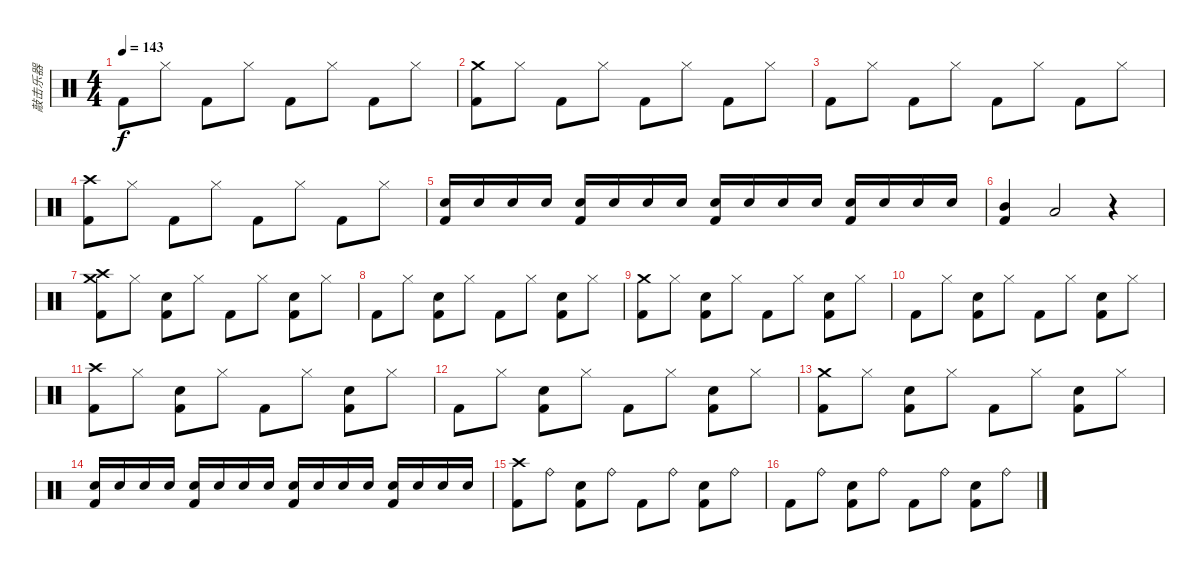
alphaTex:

\track ("敲击乐器" "敲击乐器") {instrument percussion}
\staff {score}
\articulation defaults
\ts (4 4)
\tempo 143
\clef neutral
\ks c "Kick (hit) 2".8{dy f} "Hi-Hat (closed)".8 "Kick (hit) 2".8 "Hi-Hat (closed)".8 "Kick (hit) 2".8 "Hi-Hat (closed)".8 "Kick (hit) 2".8 "Hi-Hat (closed)".8
|
("Crash medium (hit)" "Kick (hit) 2").8 "Hi-Hat (closed)".8 "Kick (hit) 2".8 "Hi-Hat (closed)".8 "Kick (hit) 2".8 "Hi-Hat (closed)".8 "Kick (hit) 2".8 "Hi-Hat (closed)".8 |
"Kick (hit) 2".8 "Hi-Hat (closed)".8 "Kick (hit) 2".8 "Hi-Hat (closed)".8 "Kick (hit) 2".8 "Hi-Hat (closed)".8 "Kick (hit) 2".8 "Hi-Hat (closed)".8 |
("Crash high (hit)" "Kick (hit) 2").8 "Hi-Hat (closed)".8 "Kick (hit) 2".8 "Hi-Hat (closed)".8 "Kick (hit) 2".8 "Hi-Hat (closed)".8 "Kick (hit) 2".8 "Hi-Hat (closed)".8 |
("Electric Snare (hit)" "Kick (hit) 2").16 "Electric Snare (hit)".16 "Electric Snare (hit)".16 "Electric Snare (hit)".16 ("Electric Snare (hit)" "Kick (hit) 2").16 "Electric Snare (hit)".16 "Electric Snare (hit)".16 "Electric Snare (hit)".16 ("Electric Snare (hit)" "Kick (hit) 2").16 "Electric Snare (hit)".16 "Electric Snare (hit)".16 "Electric Snare (hit)".16 ("Electric Snare (hit)" "Kick (hit) 2").16 "Electric Snare (hit)".16 "Electric Snare (hit)".16 "Electric Snare (hit)".16 |
("Mid Tom (hit)" "Kick (hit) 2").4 "Low Floor Tom (hit)".2 r.4 |
("Crash high (hit)" "Crash medium (hit)" "Kick (hit) 2").8 "Hi-Hat (closed)".8 ("Electric Snare (hit)" "Kick (hit) 2").8 "Hi-Hat (closed)".8 "Kick (hit) 2".8 "Hi-Hat (closed)".8 ("Electric Snare (hit)" "Kick (hit) 2").8 "Hi-Hat (closed)".8 |
"Kick (hit) 2".8 "Hi-Hat (closed)".8 ("Electric Snare (hit)" "Kick (hit) 2").8 "Hi-Hat (closed)".8 "Kick (hit) 2".8 "Hi-Hat (closed)".8 ("Electric Snare (hit)" "Kick (hit) 2").8 "Hi-Hat (closed)".8 |
("Crash medium (hit)" "Kick (hit) 2").8 "Hi-Hat (closed)".8 ("Electric Snare (hit)" "Kick (hit) 2").8 "Hi-Hat (closed)".8 "Kick (hit) 2".8 "Hi-Hat (closed)".8 ("Electric Snare (hit)" "Kick (hit) 2").8 "Hi-Hat (closed)".8 |
"Kick (hit) 2".8 "Hi-Hat (closed)".8 ("Electric Snare (hit)" "Kick (hit) 2").8 "Hi-Hat (closed)".8 "Kick (hit) 2".8 "Hi-Hat (closed)".8 ("Electric Snare (hit)" "Kick (hit) 2").8 "Hi-Hat (closed)".8 |
("Crash high (hit)" "Kick (hit) 2").8 "Hi-Hat (closed)".8 ("Electric Snare (hit)" "Kick (hit) 2").8 "Hi-Hat (closed)".8 "Kick (hit) 2".8 "Hi-Hat (closed)".8 ("Electric Snare (hit)" "Kick (hit) 2").8 "Hi-Hat (closed)".8 |
"Kick (hit) 2".8 "Hi-Hat (closed)".8 ("Electric Snare (hit)" "Kick (hit) 2").8 "Hi-Hat (closed)".8 "Kick (hit) 2".8 "Hi-Hat (closed)".8 ("Electric Snare (hit)" "Kick (hit) 2").8 "Hi-Hat (closed)".8 |
("Crash medium (hit)" "Kick (hit) 2").8 "Hi-Hat (closed)".8 ("Electric Snare (hit)" "Kick (hit) 2").8 "Hi-Hat (closed)".8 "Kick (hit) 2".8 "Hi-Hat (closed)".8 ("Electric Snare (hit)" "Kick (hit) 2").8 "Hi-Hat (closed)".8 |
("Electric Snare (hit)" "Kick (hit) 2").16 "Electric Snare (hit)".16 "Electric Snare (hit)".16 "Electric Snare (hit)".16 ("Electric Snare (hit)" "Kick (hit) 2").16 "Electric Snare (hit)".16 "Electric Snare (hit)".16 "Electric Snare (hit)".16 ("Electric Snare (hit)" "Kick (hit) 2").16 "Electric Snare (hit)".16 "Electric Snare (hit)".16 "Electric Snare (hit)".16 ("Electric Snare (hit)" "Kick (hit) 2").16 "Electric Snare (hit)".16 "Electric Snare (hit)".16 "Electric Snare (hit)".16 |
("Crash high (hit)" "Kick (hit) 2").8 "Ride (bell)".8 ("Electric Snare (hit)" "Kick (hit) 2").8 "Ride (bell)".8 "Kick (hit) 2".8 "Ride (bell)".8 ("Electric Snare (hit)" "Kick (hit) 2").8 "Ride (bell)".8 |
"Kick (hit) 2".8 "Ride (bell)".8 ("Electric Snare (hit)" "Kick (hit) 2").8 "Ride (bell)".8 "Kick (hit) 2".8 "Ride (bell)".8 ("Electric Snare (hit)" "Kick (hit) 2").8 "Ride (bell)".8
